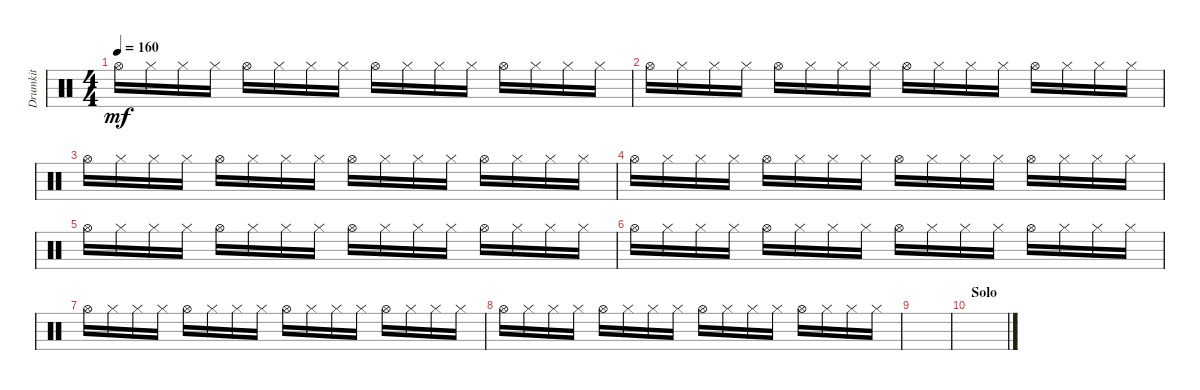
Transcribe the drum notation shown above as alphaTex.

\track ("Drumkit" "Drumkit") {instrument percussion}
\staff {score}
\articulation defaults
\ts (4 4)
\tempo 160
\clef neutral
\ks c "Hi-Hat (open)".16{dy mf} "Hi-Hat (closed)".16 "Hi-Hat (closed)".16 "Hi-Hat (closed)".16 "Hi-Hat (open)".16 "Hi-Hat (closed)".16 "Hi-Hat (closed)".16 "Hi-Hat (closed)".16 "Hi-Hat (open)".16 "Hi-Hat (closed)".16 "Hi-Hat (closed)".16 "Hi-Hat (closed)".16 "Hi-Hat (open)".16 "Hi-Hat (closed)".16 "Hi-Hat (closed)".16 "Hi-Hat (closed)".16
|
"Hi-Hat (open)".16 "Hi-Hat (closed)".16 "Hi-Hat (closed)".16 "Hi-Hat (closed)".16 "Hi-Hat (open)".16 "Hi-Hat (closed)".16 "Hi-Hat (closed)".16 "Hi-Hat (closed)".16 "Hi-Hat (open)".16 "Hi-Hat (closed)".16 "Hi-Hat (closed)".16 "Hi-Hat (closed)".16 "Hi-Hat (open)".16 "Hi-Hat (closed)".16 "Hi-Hat (closed)".16 "Hi-Hat (closed)".16 |
"Hi-Hat (open)".16 "Hi-Hat (closed)".16 "Hi-Hat (closed)".16 "Hi-Hat (closed)".16 "Hi-Hat (open)".16 "Hi-Hat (closed)".16 "Hi-Hat (closed)".16 "Hi-Hat (closed)".16 "Hi-Hat (open)".16 "Hi-Hat (closed)".16 "Hi-Hat (closed)".16 "Hi-Hat (closed)".16 "Hi-Hat (open)".16 "Hi-Hat (closed)".16 "Hi-Hat (closed)".16 "Hi-Hat (closed)".16 |
"Hi-Hat (open)".16 "Hi-Hat (closed)".16 "Hi-Hat (closed)".16 "Hi-Hat (closed)".16 "Hi-Hat (open)".16 "Hi-Hat (closed)".16 "Hi-Hat (closed)".16 "Hi-Hat (closed)".16 "Hi-Hat (open)".16 "Hi-Hat (closed)".16 "Hi-Hat (closed)".16 "Hi-Hat (closed)".16 "Hi-Hat (open)".16 "Hi-Hat (closed)".16 "Hi-Hat (closed)".16 "Hi-Hat (closed)".16 |
"Hi-Hat (open)".16 "Hi-Hat (closed)".16 "Hi-Hat (closed)".16 "Hi-Hat (closed)".16 "Hi-Hat (open)".16 "Hi-Hat (closed)".16 "Hi-Hat (closed)".16 "Hi-Hat (closed)".16 "Hi-Hat (open)".16 "Hi-Hat (closed)".16 "Hi-Hat (closed)".16 "Hi-Hat (closed)".16 "Hi-Hat (open)".16 "Hi-Hat (closed)".16 "Hi-Hat (closed)".16 "Hi-Hat (closed)".16 |
"Hi-Hat (open)".16 "Hi-Hat (closed)".16 "Hi-Hat (closed)".16 "Hi-Hat (closed)".16 "Hi-Hat (open)".16 "Hi-Hat (closed)".16 "Hi-Hat (closed)".16 "Hi-Hat (closed)".16 "Hi-Hat (open)".16 "Hi-Hat (closed)".16 "Hi-Hat (closed)".16 "Hi-Hat (closed)".16 "Hi-Hat (open)".16 "Hi-Hat (closed)".16 "Hi-Hat (closed)".16 "Hi-Hat (closed)".16 |
"Hi-Hat (open)".16 "Hi-Hat (closed)".16 "Hi-Hat (closed)".16 "Hi-Hat (closed)".16 "Hi-Hat (open)".16 "Hi-Hat (closed)".16 "Hi-Hat (closed)".16 "Hi-Hat (closed)".16 "Hi-Hat (open)".16 "Hi-Hat (closed)".16 "Hi-Hat (closed)".16 "Hi-Hat (closed)".16 "Hi-Hat (open)".16 "Hi-Hat (closed)".16 "Hi-Hat (closed)".16 "Hi-Hat (closed)".16 |
"Hi-Hat (open)".16 "Hi-Hat (closed)".16 "Hi-Hat (closed)".16 "Hi-Hat (closed)".16 "Hi-Hat (open)".16 "Hi-Hat (closed)".16 "Hi-Hat (closed)".16 "Hi-Hat (closed)".16 "Hi-Hat (open)".16 "Hi-Hat (closed)".16 "Hi-Hat (closed)".16 "Hi-Hat (closed)".16 "Hi-Hat (open)".16 "Hi-Hat (closed)".16 "Hi-Hat (closed)".16 "Hi-Hat (closed)".16 |
|
\section ("" "Solo")
